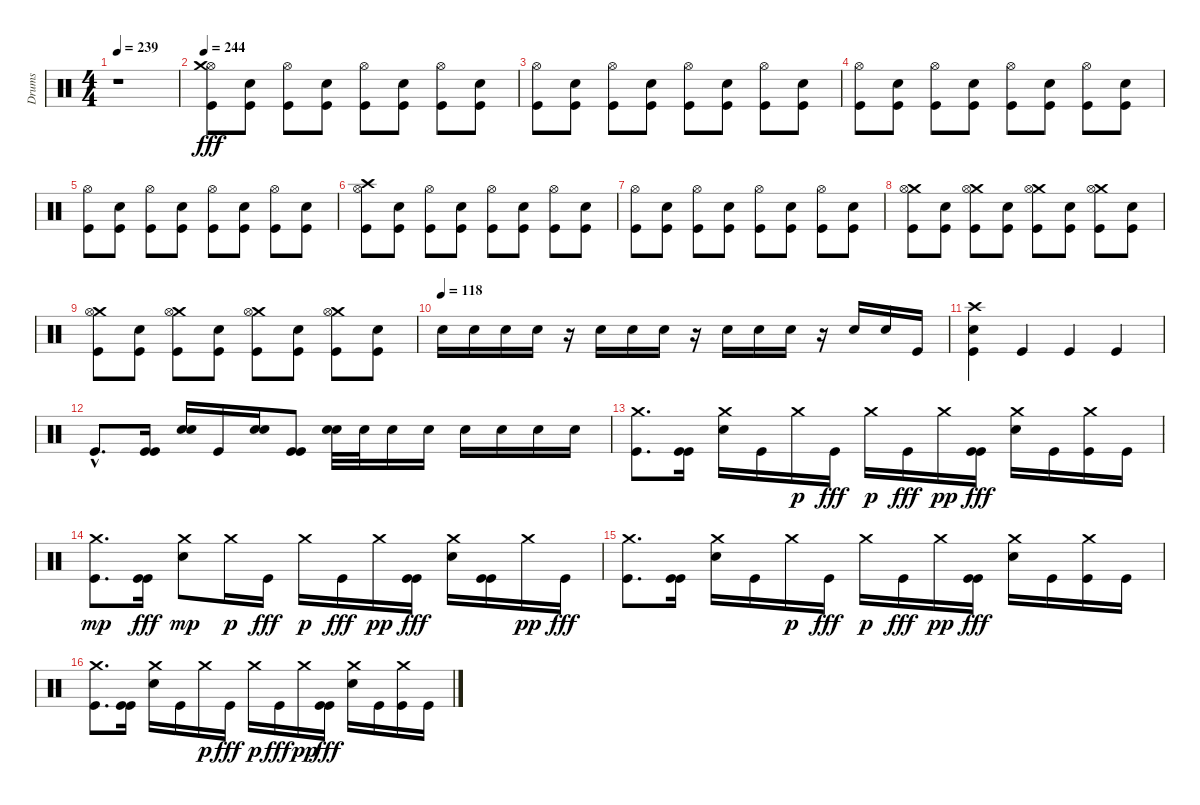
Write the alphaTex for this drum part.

\track ("Drums" "Drums") {instrument percussion}
\staff {score}
\articulation defaults
\ts (4 4)
\tempo 239
\clef neutral
\ks c
r.1{dy fff} |
\tempo 244
("Hi-Hat (open)" "Kick (hit)" "Crash medium (hit)").8 ("Electric Snare (hit)" "Kick (hit)").8 ("Hi-Hat (open)" "Kick (hit)").8 ("Electric Snare (hit)" "Kick (hit)").8 ("Hi-Hat (open)" "Kick (hit)").8 ("Electric Snare (hit)" "Kick (hit)").8 ("Hi-Hat (open)" "Kick (hit)").8 ("Electric Snare (hit)" "Kick (hit)").8 |
("Hi-Hat (open)" "Kick (hit)").8 ("Electric Snare (hit)" "Kick (hit)").8 ("Hi-Hat (open)" "Kick (hit)").8 ("Electric Snare (hit)" "Kick (hit)").8 ("Hi-Hat (open)" "Kick (hit)").8 ("Electric Snare (hit)" "Kick (hit)").8 ("Hi-Hat (open)" "Kick (hit)").8 ("Electric Snare (hit)" "Kick (hit)").8 |
("Hi-Hat (open)" "Kick (hit)").8 ("Electric Snare (hit)" "Kick (hit)").8 ("Hi-Hat (open)" "Kick (hit)").8 ("Electric Snare (hit)" "Kick (hit)").8 ("Hi-Hat (open)" "Kick (hit)").8 ("Electric Snare (hit)" "Kick (hit)").8 ("Hi-Hat (open)" "Kick (hit)").8 ("Electric Snare (hit)" "Kick (hit)").8 |
("Hi-Hat (open)" "Kick (hit)").8 ("Electric Snare (hit)" "Kick (hit)").8 ("Hi-Hat (open)" "Kick (hit)").8 ("Electric Snare (hit)" "Kick (hit)").8 ("Hi-Hat (open)" "Kick (hit)").8 ("Electric Snare (hit)" "Kick (hit)").8 ("Hi-Hat (open)" "Kick (hit)").8 ("Electric Snare (hit)" "Kick (hit)").8 |
("Crash high (hit)" "Hi-Hat (open)" "Kick (hit)").8 ("Electric Snare (hit)" "Kick (hit)").8 ("Hi-Hat (open)" "Kick (hit)").8 ("Electric Snare (hit)" "Kick (hit)").8 ("Hi-Hat (open)" "Kick (hit)").8 ("Electric Snare (hit)" "Kick (hit)").8 ("Hi-Hat (open)" "Kick (hit)").8 ("Electric Snare (hit)" "Kick (hit)").8 |
("Hi-Hat (open)" "Kick (hit)").8 ("Electric Snare (hit)" "Kick (hit)").8 ("Hi-Hat (open)" "Kick (hit)").8 ("Electric Snare (hit)" "Kick (hit)").8 ("Hi-Hat (open)" "Kick (hit)").8 ("Electric Snare (hit)" "Kick (hit)").8 ("Hi-Hat (open)" "Kick (hit)").8 ("Electric Snare (hit)" "Kick (hit)").8 |
("Crash medium (hit)" "Hi-Hat (open)" "Kick (hit)").8 ("Electric Snare (hit)" "Kick (hit)").8 ("Crash medium (hit)" "Hi-Hat (open)" "Kick (hit)").8 ("Electric Snare (hit)" "Kick (hit)").8 ("Crash medium (hit)" "Hi-Hat (open)" "Kick (hit)").8 ("Electric Snare (hit)" "Kick (hit)").8 ("Crash medium (hit)" "Hi-Hat (open)" "Kick (hit)").8 ("Electric Snare (hit)" "Kick (hit)").8 |
("Crash medium (hit)" "Hi-Hat (open)" "Kick (hit)").8 ("Electric Snare (hit)" "Kick (hit)").8 ("Crash medium (hit)" "Hi-Hat (open)" "Kick (hit)").8 ("Electric Snare (hit)" "Kick (hit)").8 ("Crash medium (hit)" "Hi-Hat (open)" "Kick (hit)").8 ("Electric Snare (hit)" "Kick (hit)").8 ("Crash medium (hit)" "Hi-Hat (open)" "Kick (hit)").8 ("Electric Snare (hit)" "Kick (hit)").8 |
\tempo (118)
"Electric Snare (hit)".16 "Electric Snare (hit)".16 "Electric Snare (hit)".16 "Electric Snare (hit)".16 r.16 "Electric Snare (hit)".16 "Electric Snare (hit)".16 "Electric Snare (hit)".16 r.16 "Electric Snare (hit)".16 "Electric Snare (hit)".16 "Electric Snare (hit)".16 r.16 "Electric Snare (hit)".16 "Electric Snare (hit)".16 "Kick (hit)".16 |
("Electric Snare (hit)" "Crash high (hit)" "Kick (hit)").4 "Kick (hit)".4 "Kick (hit)".4 "Kick (hit)".4 |
"Kick (hit)"{hac}.8{d} ("Kick (hit)" "Kick (hit)").16 ("Electric Snare (hit)" "Electric Snare (hit)").16 "Kick (hit)".16 ("Electric Snare (hit)" "Electric Snare (hit)").16 ("Kick (hit)" "Kick (hit)").8 ("Electric Snare (hit)" "Electric Snare (hit)").32 "Electric Snare (hit)".32 "Electric Snare (hit)".16 "Electric Snare (hit)".16 "Electric Snare (hit)".16 "Electric Snare (hit)".16 "Electric Snare (hit)".16 "Electric Snare (hit)".16 |
("Crash medium (hit)" "Kick (hit)").8{d} ("Kick (hit)" "Kick (hit)").16 ("Crash medium (hit)" "Electric Snare (hit)").16 "Kick (hit)".16 "Crash medium (hit)".16{dy p} "Kick (hit)".16{dy fff} "Crash medium (hit)".16{dy p} "Kick (hit)".16{dy fff} "Crash medium (hit)".16{dy pp} ("Kick (hit)" "Kick (hit)").16{dy fff} ("Crash medium (hit)" "Electric Snare (hit)").16 "Kick (hit)".16 ("Crash medium (hit)" "Kick (hit)").16 "Kick (hit)".16 |
("Kick (hit)" "Crash medium (hit)").8{d dy mp} ("Kick (hit)" "Kick (hit)").16{dy fff} ("Electric Snare (hit)" "Crash medium (hit)").8{dy mp} "Crash medium (hit)".16{dy p} "Kick (hit)".16{dy fff} "Crash medium (hit)".16{dy p} "Kick (hit)".16{dy fff} "Crash medium (hit)".16{dy pp} ("Kick (hit)" "Kick (hit)").16{dy fff} ("Crash medium (hit)" "Electric Snare (hit)").16 ("Kick (hit)" "Kick (hit)").16 "Crash medium (hit)".16{dy pp} "Kick (hit)".16{dy fff} |
("Crash medium (hit)" "Kick (hit)").8{d} ("Kick (hit)" "Kick (hit)").16 ("Crash medium (hit)" "Electric Snare (hit)").16 "Kick (hit)".16 "Crash medium (hit)".16{dy p} "Kick (hit)".16{dy fff} "Crash medium (hit)".16{dy p} "Kick (hit)".16{dy fff} "Crash medium (hit)".16{dy pp} ("Kick (hit)" "Kick (hit)").16{dy fff} ("Crash medium (hit)" "Electric Snare (hit)").16 "Kick (hit)".16 ("Crash medium (hit)" "Kick (hit)").16 "Kick (hit)".16 |
("Crash medium (hit)" "Kick (hit)").8{d} ("Kick (hit)" "Kick (hit)").16 ("Crash medium (hit)" "Electric Snare (hit)").16 "Kick (hit)".16 "Crash medium (hit)".16{dy p} "Kick (hit)".16{dy fff} "Crash medium (hit)".16{dy p} "Kick (hit)".16{dy fff} "Crash medium (hit)".16{dy pp} ("Kick (hit)" "Kick (hit)").16{dy fff} ("Crash medium (hit)" "Electric Snare (hit)").16 "Kick (hit)".16 ("Crash medium (hit)" "Kick (hit)").16 "Kick (hit)".16
